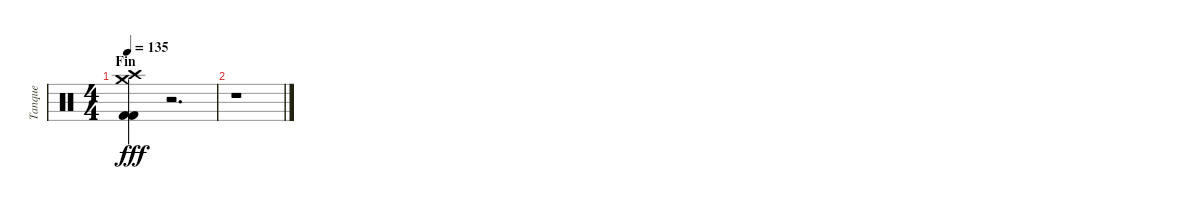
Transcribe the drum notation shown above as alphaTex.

\track ("Tanque" "Tanque") {instrument percussion}
\staff {score}
\articulation defaults
\ts (4 4)
\section ("" "Fin")
\tempo 135
\clef neutral
\ks c
("Crash high (hit)" "Crash medium (hit)" "Kick (hit) 2" "Kick (hit) 2").4{dy fff} r.2{d} |
r.1
